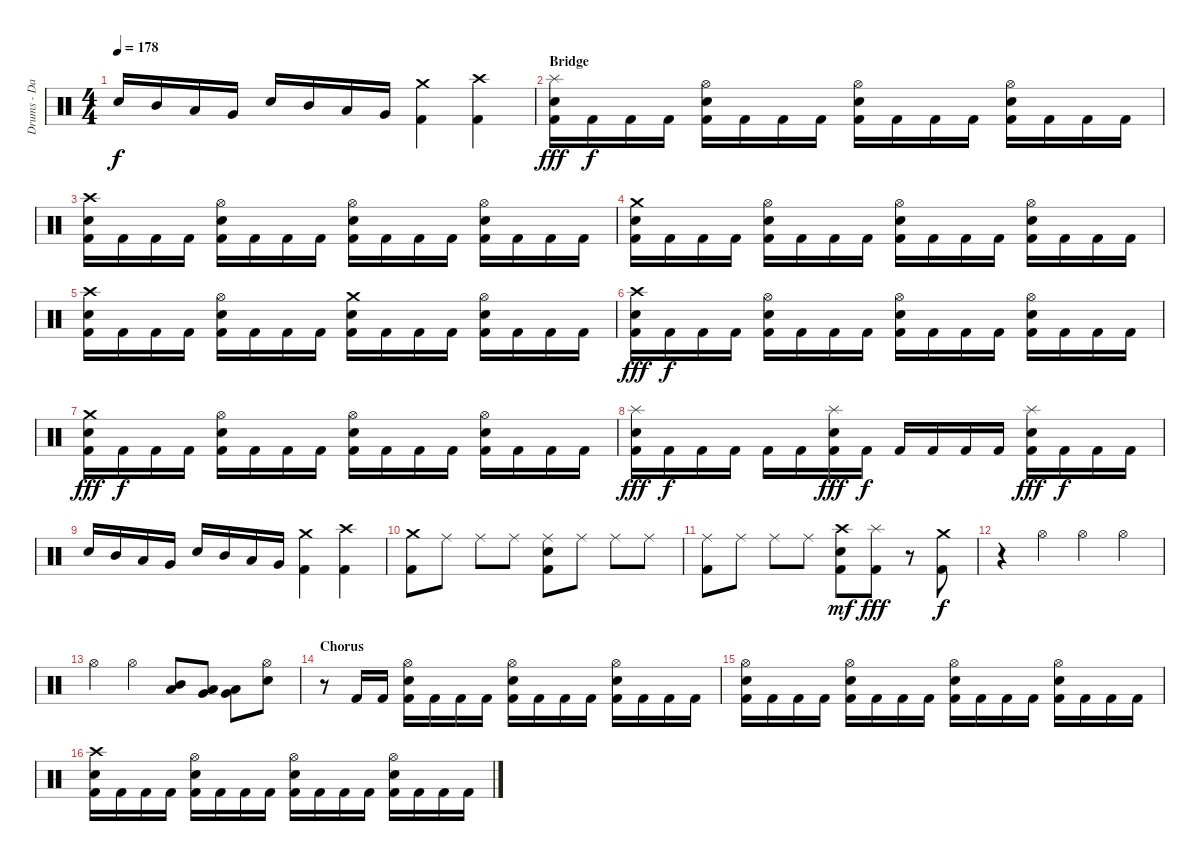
\track ("Drums - Daniel Zimmermann" "Drums - Da") {instrument percussion}
\staff {score}
\articulation defaults
\ts (4 4)
\tempo 178
\clef neutral
\ks c "Electric Snare (hit)".16{dy f} "Mid Tom (hit)".16 "Low Tom (hit)".16 "Very Low Tom (hit)".16 "Electric Snare (hit)".16 "Mid Tom (hit)".16 "Low Tom (hit)".16 "Very Low Tom (hit)".16
("Kick (hit) 2" "Crash medium (hit)").4 ("Kick (hit) 2" "Crash high (hit)").4 |
\section ("" "Bridge")
("Kick (hit) 2" "Electric Snare (hit)" "Splash (hit)").16{dy fff} "Kick (hit) 2".16{dy f} "Kick (hit) 2".16 "Kick (hit) 2".16 ("Kick (hit) 2" "Electric Snare (hit)" "Hi-Hat (open)").16 "Kick (hit) 2".16 "Kick (hit) 2".16 "Kick (hit) 2".16 ("Kick (hit) 2" "Electric Snare (hit)" "Hi-Hat (open)").16 "Kick (hit) 2".16 "Kick (hit) 2".16 "Kick (hit) 2".16 ("Kick (hit) 2" "Electric Snare (hit)" "Hi-Hat (open)").16 "Kick (hit) 2".16 "Kick (hit) 2".16 "Kick (hit) 2".16 |
("Kick (hit) 2" "Electric Snare (hit)" "Crash high (hit)").16 "Kick (hit) 2".16 "Kick (hit) 2".16 "Kick (hit) 2".16 ("Kick (hit) 2" "Electric Snare (hit)" "Hi-Hat (open)").16 "Kick (hit) 2".16 "Kick (hit) 2".16 "Kick (hit) 2".16 ("Kick (hit) 2" "Electric Snare (hit)" "Hi-Hat (open)").16 "Kick (hit) 2".16 "Kick (hit) 2".16 "Kick (hit) 2".16 ("Kick (hit) 2" "Electric Snare (hit)" "Hi-Hat (open)").16 "Kick (hit) 2".16 "Kick (hit) 2".16 "Kick (hit) 2".16 |
("Kick (hit) 2" "Electric Snare (hit)" "Crash medium (hit)").16 "Kick (hit) 2".16 "Kick (hit) 2".16 "Kick (hit) 2".16 ("Kick (hit) 2" "Electric Snare (hit)" "Hi-Hat (open)").16 "Kick (hit) 2".16 "Kick (hit) 2".16 "Kick (hit) 2".16 ("Kick (hit) 2" "Electric Snare (hit)" "Hi-Hat (open)").16 "Kick (hit) 2".16 "Kick (hit) 2".16 "Kick (hit) 2".16 ("Kick (hit) 2" "Electric Snare (hit)" "Hi-Hat (open)").16 "Kick (hit) 2".16 "Kick (hit) 2".16 "Kick (hit) 2".16 |
("Kick (hit) 2" "Electric Snare (hit)" "Crash high (hit)").16 "Kick (hit) 2".16 "Kick (hit) 2".16 "Kick (hit) 2".16 ("Kick (hit) 2" "Electric Snare (hit)" "Hi-Hat (open)").16 "Kick (hit) 2".16 "Kick (hit) 2".16 "Kick (hit) 2".16 ("Kick (hit) 2" "Electric Snare (hit)" "Crash medium (hit)").16 "Kick (hit) 2".16 "Kick (hit) 2".16 "Kick (hit) 2".16 ("Kick (hit) 2" "Electric Snare (hit)" "Hi-Hat (open)").16 "Kick (hit) 2".16 "Kick (hit) 2".16 "Kick (hit) 2".16 |
("Kick (hit) 2" "Electric Snare (hit)" "Crash high (hit)").16{dy fff} "Kick (hit) 2".16{dy f} "Kick (hit) 2".16 "Kick (hit) 2".16 ("Kick (hit) 2" "Electric Snare (hit)" "Hi-Hat (open)").16 "Kick (hit) 2".16 "Kick (hit) 2".16 "Kick (hit) 2".16 ("Kick (hit) 2" "Electric Snare (hit)" "Hi-Hat (open)").16 "Kick (hit) 2".16 "Kick (hit) 2".16 "Kick (hit) 2".16 ("Kick (hit) 2" "Electric Snare (hit)" "Hi-Hat (open)").16 "Kick (hit) 2".16 "Kick (hit) 2".16 "Kick (hit) 2".16 |
("Kick (hit) 2" "Electric Snare (hit)" "Crash medium (hit)").16{dy fff} "Kick (hit) 2".16{dy f} "Kick (hit) 2".16 "Kick (hit) 2".16 ("Kick (hit) 2" "Electric Snare (hit)" "Hi-Hat (open)").16 "Kick (hit) 2".16 "Kick (hit) 2".16 "Kick (hit) 2".16 ("Kick (hit) 2" "Electric Snare (hit)" "Hi-Hat (open)").16 "Kick (hit) 2".16 "Kick (hit) 2".16 "Kick (hit) 2".16 ("Kick (hit) 2" "Electric Snare (hit)" "Hi-Hat (open)").16 "Kick (hit) 2".16 "Kick (hit) 2".16 "Kick (hit) 2".16 |
("Kick (hit) 2" "Electric Snare (hit)" "Splash (hit)").16{dy fff} "Kick (hit) 2".16{dy f} "Kick (hit) 2".16 "Kick (hit) 2".16 "Kick (hit) 2".16 "Kick (hit) 2".16 ("Kick (hit) 2" "Electric Snare (hit)" "Splash (hit)").16{dy fff} "Kick (hit) 2".16{dy f} "Kick (hit) 2".16 "Kick (hit) 2".16 "Kick (hit) 2".16 "Kick (hit) 2".16 ("Kick (hit) 2" "Electric Snare (hit)" "Splash (hit)").16{dy fff} "Kick (hit) 2".16{dy f} "Kick (hit) 2".16 "Kick (hit) 2".16 |
"Electric Snare (hit)".16 "Mid Tom (hit)".16 "Low Tom (hit)".16 "Very Low Tom (hit)".16 "Electric Snare (hit)".16 "Mid Tom (hit)".16 "Low Tom (hit)".16 "Very Low Tom (hit)".16 ("Kick (hit) 2" "Crash medium (hit)").4 ("Kick (hit) 2" "Crash high (hit)").4 |
("Kick (hit) 2" "Crash medium (hit)").8 "Ride (middle)".8 "Ride (middle)".8 "Ride (middle)".8 ("Kick (hit) 2" "Electric Snare (hit)" "Ride (middle)").8 "Ride (middle)".8 "Ride (middle)".8 "Ride (middle)".8 |
("Kick (hit) 2" "Ride (middle)").8 "Ride (middle)".8 "Ride (middle)".8 "Ride (middle)".8 ("Kick (hit) 2" "Electric Snare (hit)" "Crash high (hit)").8{dy mf} ("Kick (hit) 2" "Splash (hit)").8{dy fff} r.8 ("Kick (hit) 2" "Crash medium (hit)").8{dy f} |
r.4 "Hi-Hat (open)".4 "Hi-Hat (open)".4 "Hi-Hat (open)".4 |
"Hi-Hat (open)".4 "Hi-Hat (open)".4 ("Mid Tom (hit)" "Low Tom (hit)").8 ("Low Tom (hit)" "Very Low Tom (hit)").8 ("Very Low Tom (hit)" "Low Floor Tom (hit)").8 ("Electric Snare (hit)" "Hi-Hat (open)").8 |
\section ("" "Chorus")
r.8 "Kick (hit) 2".16 "Kick (hit) 2".16 ("Kick (hit) 2" "Electric Snare (hit)" "Hi-Hat (open)").16 "Kick (hit) 2".16 "Kick (hit) 2".16 "Kick (hit) 2".16 ("Kick (hit) 2" "Electric Snare (hit)" "Hi-Hat (open)").16 "Kick (hit) 2".16 "Kick (hit) 2".16 "Kick (hit) 2".16 ("Kick (hit) 2" "Electric Snare (hit)" "Hi-Hat (open)").16 "Kick (hit) 2".16 "Kick (hit) 2".16 "Kick (hit) 2".16 |
("Kick (hit) 2" "Electric Snare (hit)" "Hi-Hat (open)").16 "Kick (hit) 2".16 "Kick (hit) 2".16 "Kick (hit) 2".16 ("Kick (hit) 2" "Electric Snare (hit)" "Hi-Hat (open)").16 "Kick (hit) 2".16 "Kick (hit) 2".16 "Kick (hit) 2".16 ("Kick (hit) 2" "Electric Snare (hit)" "Hi-Hat (open)").16 "Kick (hit) 2".16 "Kick (hit) 2".16 "Kick (hit) 2".16 ("Kick (hit) 2" "Electric Snare (hit)" "Hi-Hat (open)").16 "Kick (hit) 2".16 "Kick (hit) 2".16 "Kick (hit) 2".16 |
("Kick (hit) 2" "Electric Snare (hit)" "Crash high (hit)").16 "Kick (hit) 2".16 "Kick (hit) 2".16 "Kick (hit) 2".16 ("Kick (hit) 2" "Electric Snare (hit)" "Hi-Hat (open)").16 "Kick (hit) 2".16 "Kick (hit) 2".16 "Kick (hit) 2".16 ("Kick (hit) 2" "Electric Snare (hit)" "Hi-Hat (open)").16 "Kick (hit) 2".16 "Kick (hit) 2".16 "Kick (hit) 2".16 ("Kick (hit) 2" "Electric Snare (hit)" "Hi-Hat (open)").16 "Kick (hit) 2".16 "Kick (hit) 2".16 "Kick (hit) 2".16
